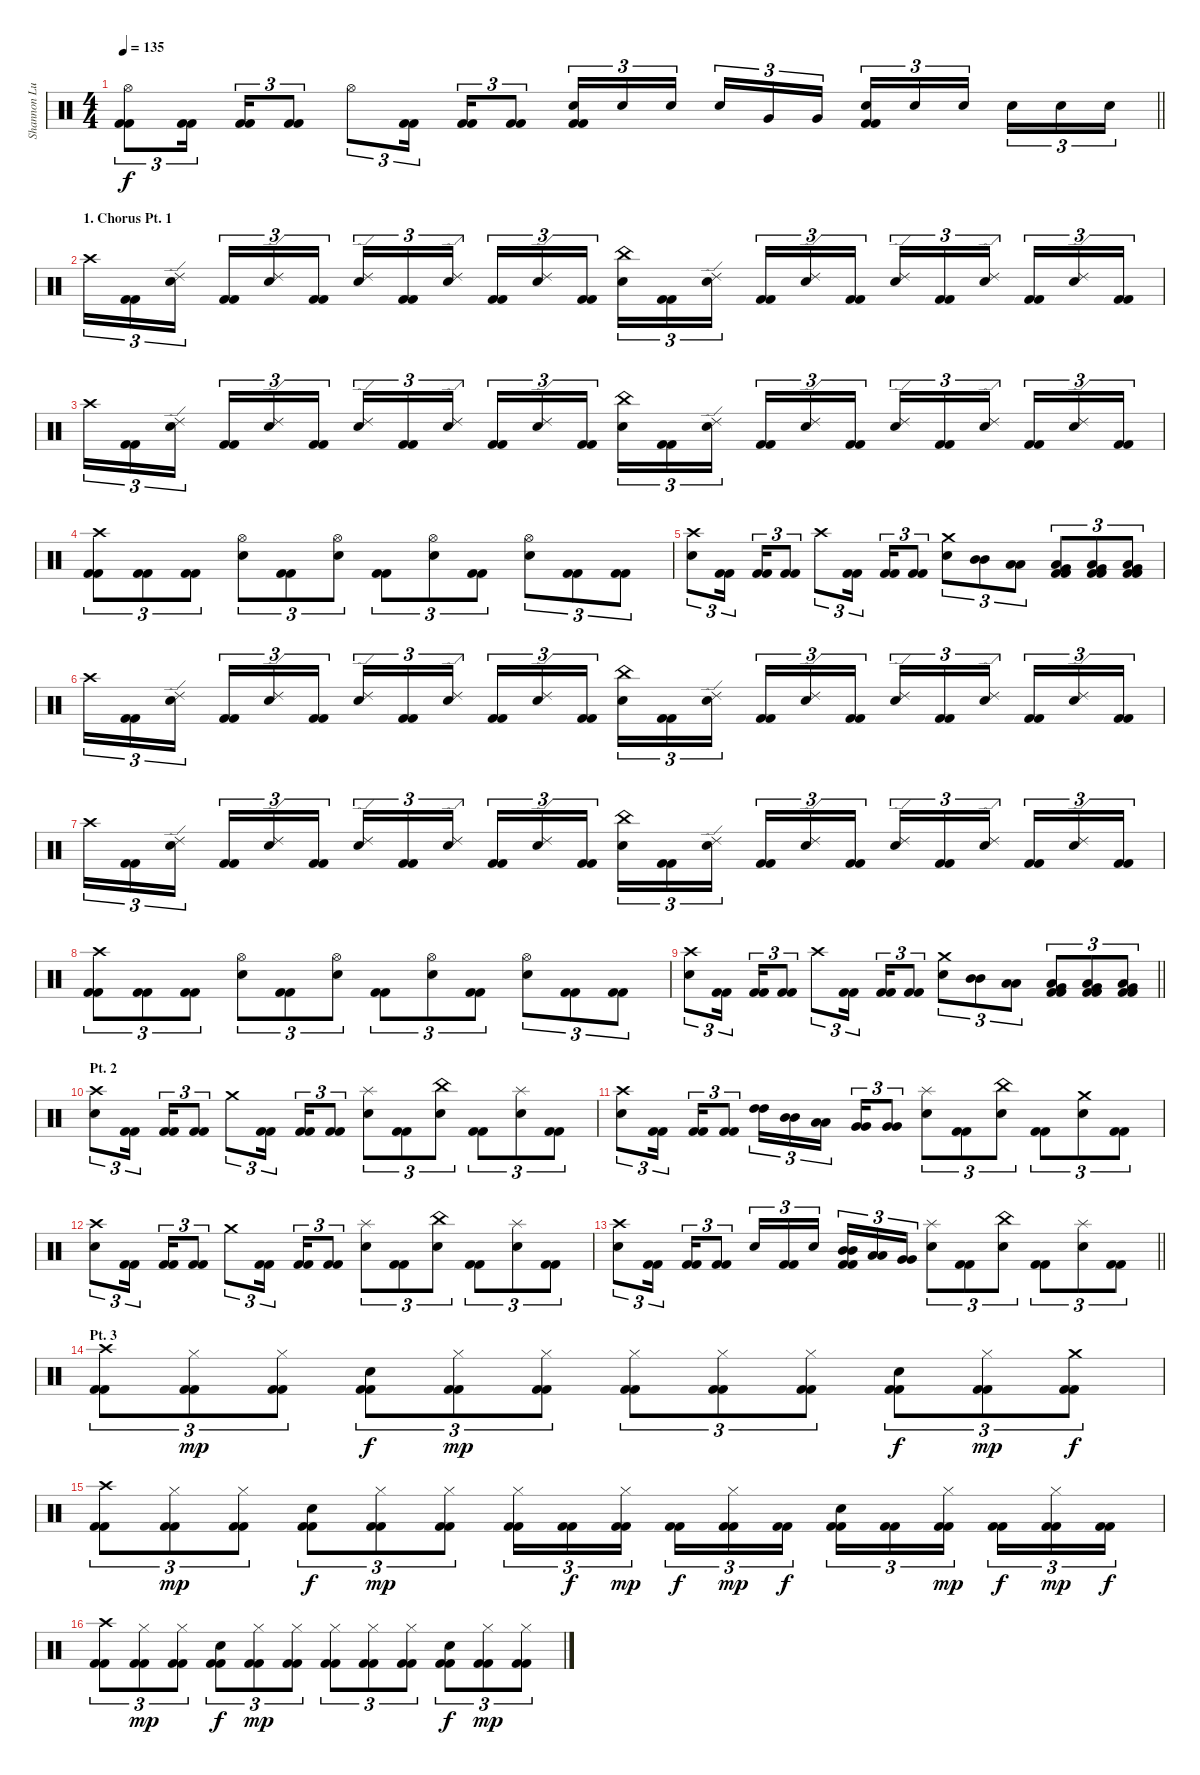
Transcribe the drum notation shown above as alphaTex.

\track ("Shannon Lucas" "Shannon Lu") {instrument percussion}
\staff {score}
\articulation defaults
\ts (4 4)
\tempo 135
\clef neutral
\barLineRight lightlight
\ks c
("Hi-Hat (open)" "Kick (hit) 2" "Kick (hit) 2").8{tu (3 2) dy f} ("Kick (hit) 2" "Kick (hit) 2").16{tu (3 2) beam splitsecondary} ("Kick (hit) 2" "Kick (hit) 2").16{tu (3 2)} ("Kick (hit) 2" "Kick (hit) 2").8{tu (3 2)} "Hi-Hat (open)".8{tu (3 2)} ("Kick (hit) 2" "Kick (hit) 2").16{tu (3 2) beam splitsecondary} ("Kick (hit) 2" "Kick (hit) 2").16{tu (3 2)} ("Kick (hit) 2" "Kick (hit) 2").8{tu (3 2)} ("Electric Snare (hit)" "Kick (hit) 2" "Kick (hit) 2").16{tu (3 2)} "Electric Snare (hit)".16{tu (3 2)} "Electric Snare (hit)".16{tu (3 2) beam splitsecondary} "Electric Snare (hit)".16{tu (3 2)} "Very Low Tom (hit)".16{tu (3 2)} "Very Low Tom (hit)".16{tu (3 2)} ("Electric Snare (hit)" "Kick (hit) 2" "Kick (hit) 2").16{tu (3 2)} "Electric Snare (hit)".16{tu (3 2)} "Electric Snare (hit)".16{tu (3 2) beam splitsecondary} "Electric Snare (hit)".16{tu (3 2)} "Electric Snare (hit)".16{tu (3 2)} "Electric Snare (hit)".16{tu (3 2)} |
\section ("" "1. Chorus Pt. 1")
"Crash high (hit)".16{tu (3 2)} ("Kick (hit) 2" "Kick (hit) 2").16{tu (3 2)} ("Ride (edge) 2" "Electric Snare (hit)").16{tu (3 2) beam splitsecondary} ("Kick (hit) 2" "Kick (hit) 2").16{tu (3 2)} ("Ride (edge) 2" "Electric Snare (hit)").16{tu (3 2)} ("Kick (hit) 2" "Kick (hit) 2").16{tu (3 2)} ("Ride (edge) 2" "Electric Snare (hit)").16{tu (3 2)} ("Kick (hit) 2" "Kick (hit) 2").16{tu (3 2)} ("Ride (edge) 2" "Electric Snare (hit)").16{tu (3 2) beam splitsecondary} ("Kick (hit) 2" "Kick (hit) 2").16{tu (3 2)} ("Ride (edge) 2" "Electric Snare (hit)").16{tu (3 2)} ("Kick (hit) 2" "Kick (hit) 2").16{tu (3 2)} ("China (hit)" "Electric Snare (hit)").16{tu (3 2)} ("Kick (hit) 2" "Kick (hit) 2").16{tu (3 2)} ("Ride (edge) 2" "Electric Snare (hit)").16{tu (3 2) beam splitsecondary} ("Kick (hit) 2" "Kick (hit) 2").16{tu (3 2)} ("Ride (edge) 2" "Electric Snare (hit)").16{tu (3 2)} ("Kick (hit) 2" "Kick (hit) 2").16{tu (3 2)} ("Ride (edge) 2" "Electric Snare (hit)").16{tu (3 2)} ("Kick (hit) 2" "Kick (hit) 2").16{tu (3 2)} ("Ride (edge) 2" "Electric Snare (hit)").16{tu (3 2) beam splitsecondary} ("Kick (hit) 2" "Kick (hit) 2").16{tu (3 2)} ("Ride (edge) 2" "Electric Snare (hit)").16{tu (3 2)} ("Kick (hit) 2" "Kick (hit) 2").16{tu (3 2)} |
"Crash high (hit)".16{tu (3 2)} ("Kick (hit) 2" "Kick (hit) 2").16{tu (3 2)} ("Ride (edge) 2" "Electric Snare (hit)").16{tu (3 2) beam splitsecondary} ("Kick (hit) 2" "Kick (hit) 2").16{tu (3 2)} ("Ride (edge) 2" "Electric Snare (hit)").16{tu (3 2)} ("Kick (hit) 2" "Kick (hit) 2").16{tu (3 2)} ("Ride (edge) 2" "Electric Snare (hit)").16{tu (3 2)} ("Kick (hit) 2" "Kick (hit) 2").16{tu (3 2)} ("Ride (edge) 2" "Electric Snare (hit)").16{tu (3 2) beam splitsecondary} ("Kick (hit) 2" "Kick (hit) 2").16{tu (3 2)} ("Ride (edge) 2" "Electric Snare (hit)").16{tu (3 2)} ("Kick (hit) 2" "Kick (hit) 2").16{tu (3 2)} ("China (hit)" "Electric Snare (hit)").16{tu (3 2)} ("Kick (hit) 2" "Kick (hit) 2").16{tu (3 2)} ("Ride (edge) 2" "Electric Snare (hit)").16{tu (3 2) beam splitsecondary} ("Kick (hit) 2" "Kick (hit) 2").16{tu (3 2)} ("Ride (edge) 2" "Electric Snare (hit)").16{tu (3 2)} ("Kick (hit) 2" "Kick (hit) 2").16{tu (3 2)} ("Ride (edge) 2" "Electric Snare (hit)").16{tu (3 2)} ("Kick (hit) 2" "Kick (hit) 2").16{tu (3 2)} ("Ride (edge) 2" "Electric Snare (hit)").16{tu (3 2) beam splitsecondary} ("Kick (hit) 2" "Kick (hit) 2").16{tu (3 2)} ("Ride (edge) 2" "Electric Snare (hit)").16{tu (3 2)} ("Kick (hit) 2" "Kick (hit) 2").16{tu (3 2)} |
("Crash high (hit)" "Kick (hit) 2" "Kick (hit) 2").8{tu (3 2)} ("Kick (hit) 2" "Kick (hit) 2").8{tu (3 2)} ("Kick (hit) 2" "Kick (hit) 2").8{tu (3 2)} ("Hi-Hat (open)" "Electric Snare (hit)").8{tu (3 2)} ("Kick (hit) 2" "Kick (hit) 2").8{tu (3 2)} ("Hi-Hat (open)" "Electric Snare (hit)").8{tu (3 2)} ("Kick (hit) 2" "Kick (hit) 2").8{tu (3 2)} ("Hi-Hat (open)" "Electric Snare (hit)").8{tu (3 2)} ("Kick (hit) 2" "Kick (hit) 2").8{tu (3 2)} ("Hi-Hat (open)" "Electric Snare (hit)").8{tu (3 2)} ("Kick (hit) 2" "Kick (hit) 2").8{tu (3 2)} ("Kick (hit) 2" "Kick (hit) 2").8{tu (3 2)} |
("Crash high (hit)" "Electric Snare (hit)").8{tu (3 2)} ("Kick (hit) 2" "Kick (hit) 2").16{tu (3 2) beam splitsecondary} ("Kick (hit) 2" "Kick (hit) 2").16{tu (3 2)} ("Kick (hit) 2" "Kick (hit) 2").8{tu (3 2)} "Crash high (hit)".8{tu (3 2)} ("Kick (hit) 2" "Kick (hit) 2").16{tu (3 2) beam splitsecondary} ("Kick (hit) 2" "Kick (hit) 2").16{tu (3 2)} ("Kick (hit) 2" "Kick (hit) 2").8{tu (3 2)} ("Crash medium (hit)" "Electric Snare (hit)").8{tu (3 2)} ("Mid Tom (hit)" "Mid Tom (hit)").8{tu (3 2)} ("Low Tom (hit)" "Low Tom (hit)").8{tu (3 2)} ("Very Low Tom (hit)" "Low Tom (hit)" "Kick (hit) 2" "Kick (hit) 2").8{tu (3 2)} ("Very Low Tom (hit)" "Low Floor Tom (hit)" "Kick (hit) 2" "Kick (hit) 2").8{tu (3 2)} ("Very Low Tom (hit)" "Low Tom (hit)" "Kick (hit) 2" "Kick (hit) 2").8{tu (3 2)} |
"Crash high (hit)".16{tu (3 2)} ("Kick (hit) 2" "Kick (hit) 2").16{tu (3 2)} ("Ride (edge) 2" "Electric Snare (hit)").16{tu (3 2) beam splitsecondary} ("Kick (hit) 2" "Kick (hit) 2").16{tu (3 2)} ("Ride (edge) 2" "Electric Snare (hit)").16{tu (3 2)} ("Kick (hit) 2" "Kick (hit) 2").16{tu (3 2)} ("Ride (edge) 2" "Electric Snare (hit)").16{tu (3 2)} ("Kick (hit) 2" "Kick (hit) 2").16{tu (3 2)} ("Ride (edge) 2" "Electric Snare (hit)").16{tu (3 2) beam splitsecondary} ("Kick (hit) 2" "Kick (hit) 2").16{tu (3 2)} ("Ride (edge) 2" "Electric Snare (hit)").16{tu (3 2)} ("Kick (hit) 2" "Kick (hit) 2").16{tu (3 2)} ("China (hit)" "Electric Snare (hit)").16{tu (3 2)} ("Kick (hit) 2" "Kick (hit) 2").16{tu (3 2)} ("Ride (edge) 2" "Electric Snare (hit)").16{tu (3 2) beam splitsecondary} ("Kick (hit) 2" "Kick (hit) 2").16{tu (3 2)} ("Ride (edge) 2" "Electric Snare (hit)").16{tu (3 2)} ("Kick (hit) 2" "Kick (hit) 2").16{tu (3 2)} ("Ride (edge) 2" "Electric Snare (hit)").16{tu (3 2)} ("Kick (hit) 2" "Kick (hit) 2").16{tu (3 2)} ("Ride (edge) 2" "Electric Snare (hit)").16{tu (3 2) beam splitsecondary} ("Kick (hit) 2" "Kick (hit) 2").16{tu (3 2)} ("Ride (edge) 2" "Electric Snare (hit)").16{tu (3 2)} ("Kick (hit) 2" "Kick (hit) 2").16{tu (3 2)} |
"Crash high (hit)".16{tu (3 2)} ("Kick (hit) 2" "Kick (hit) 2").16{tu (3 2)} ("Ride (edge) 2" "Electric Snare (hit)").16{tu (3 2) beam splitsecondary} ("Kick (hit) 2" "Kick (hit) 2").16{tu (3 2)} ("Ride (edge) 2" "Electric Snare (hit)").16{tu (3 2)} ("Kick (hit) 2" "Kick (hit) 2").16{tu (3 2)} ("Ride (edge) 2" "Electric Snare (hit)").16{tu (3 2)} ("Kick (hit) 2" "Kick (hit) 2").16{tu (3 2)} ("Ride (edge) 2" "Electric Snare (hit)").16{tu (3 2) beam splitsecondary} ("Kick (hit) 2" "Kick (hit) 2").16{tu (3 2)} ("Ride (edge) 2" "Electric Snare (hit)").16{tu (3 2)} ("Kick (hit) 2" "Kick (hit) 2").16{tu (3 2)} ("China (hit)" "Electric Snare (hit)").16{tu (3 2)} ("Kick (hit) 2" "Kick (hit) 2").16{tu (3 2)} ("Ride (edge) 2" "Electric Snare (hit)").16{tu (3 2) beam splitsecondary} ("Kick (hit) 2" "Kick (hit) 2").16{tu (3 2)} ("Ride (edge) 2" "Electric Snare (hit)").16{tu (3 2)} ("Kick (hit) 2" "Kick (hit) 2").16{tu (3 2)} ("Ride (edge) 2" "Electric Snare (hit)").16{tu (3 2)} ("Kick (hit) 2" "Kick (hit) 2").16{tu (3 2)} ("Ride (edge) 2" "Electric Snare (hit)").16{tu (3 2) beam splitsecondary} ("Kick (hit) 2" "Kick (hit) 2").16{tu (3 2)} ("Ride (edge) 2" "Electric Snare (hit)").16{tu (3 2)} ("Kick (hit) 2" "Kick (hit) 2").16{tu (3 2)} |
("Crash high (hit)" "Kick (hit) 2" "Kick (hit) 2").8{tu (3 2)} ("Kick (hit) 2" "Kick (hit) 2").8{tu (3 2)} ("Kick (hit) 2" "Kick (hit) 2").8{tu (3 2)} ("Hi-Hat (open)" "Electric Snare (hit)").8{tu (3 2)} ("Kick (hit) 2" "Kick (hit) 2").8{tu (3 2)} ("Hi-Hat (open)" "Electric Snare (hit)").8{tu (3 2)} ("Kick (hit) 2" "Kick (hit) 2").8{tu (3 2)} ("Hi-Hat (open)" "Electric Snare (hit)").8{tu (3 2)} ("Kick (hit) 2" "Kick (hit) 2").8{tu (3 2)} ("Hi-Hat (open)" "Electric Snare (hit)").8{tu (3 2)} ("Kick (hit) 2" "Kick (hit) 2").8{tu (3 2)} ("Kick (hit) 2" "Kick (hit) 2").8{tu (3 2)} |
\barLineRight lightlight
("Crash high (hit)" "Electric Snare (hit)").8{tu (3 2)} ("Kick (hit) 2" "Kick (hit) 2").16{tu (3 2) beam splitsecondary} ("Kick (hit) 2" "Kick (hit) 2").16{tu (3 2)} ("Kick (hit) 2" "Kick (hit) 2").8{tu (3 2)} "Crash high (hit)".8{tu (3 2)} ("Kick (hit) 2" "Kick (hit) 2").16{tu (3 2) beam splitsecondary} ("Kick (hit) 2" "Kick (hit) 2").16{tu (3 2)} ("Kick (hit) 2" "Kick (hit) 2").8{tu (3 2)} ("Crash medium (hit)" "Electric Snare (hit)").8{tu (3 2)} ("Mid Tom (hit)" "Mid Tom (hit)").8{tu (3 2)} ("Low Tom (hit)" "Low Tom (hit)").8{tu (3 2)} ("Very Low Tom (hit)" "Low Tom (hit)" "Kick (hit) 2" "Kick (hit) 2").8{tu (3 2)} ("Very Low Tom (hit)" "Low Floor Tom (hit)" "Kick (hit) 2" "Kick (hit) 2").8{tu (3 2)} ("Very Low Tom (hit)" "Low Tom (hit)" "Kick (hit) 2" "Kick (hit) 2").8{tu (3 2)} |
\section ("" "Pt. 2")
("Crash high (hit)" "Electric Snare (hit)").8{tu (3 2)} ("Kick (hit) 2" "Kick (hit) 2").16{tu (3 2) beam splitsecondary} ("Kick (hit) 2" "Kick (hit) 2").16{tu (3 2)} ("Kick (hit) 2" "Kick (hit) 2").8{tu (3 2)} "Crash medium (hit)".8{tu (3 2)} ("Kick (hit) 2" "Kick (hit) 2").16{tu (3 2) beam splitsecondary} ("Kick (hit) 2" "Kick (hit) 2").16{tu (3 2)} ("Kick (hit) 2" "Kick (hit) 2").8{tu (3 2)} ("Splash (hit)" "Electric Snare (hit)").8{tu (3 2)} ("Kick (hit) 2" "Kick (hit) 2").8{tu (3 2)} ("China (hit)" "Electric Snare (hit)").8{tu (3 2)} ("Kick (hit) 2" "Kick (hit) 2").8{tu (3 2)} ("Splash (hit)" "Electric Snare (hit)").8{tu (3 2)} ("Kick (hit) 2" "Kick (hit) 2").8{tu (3 2)} |
("Crash high (hit)" "Electric Snare (hit)").8{tu (3 2)} ("Kick (hit) 2" "Kick (hit) 2").16{tu (3 2) beam splitsecondary} ("Kick (hit) 2" "Kick (hit) 2").16{tu (3 2)} ("Kick (hit) 2" "Kick (hit) 2").8{tu (3 2)} ("High Tom (hit)" "High Tom (hit)").16{tu (3 2)} ("Mid Tom (hit)" "Mid Tom (hit)").16{tu (3 2)} ("Low Tom (hit)" "Low Tom (hit)").16{tu (3 2) beam splitsecondary} ("Very Low Tom (hit)" "Very Low Tom (hit)").16{tu (3 2)} ("Very Low Tom (hit)" "Very Low Tom (hit)").8{tu (3 2)} ("Splash (hit)" "Electric Snare (hit)").8{tu (3 2)} ("Kick (hit) 2" "Kick (hit) 2").8{tu (3 2)} ("China (hit)" "Electric Snare (hit)").8{tu (3 2)} ("Kick (hit) 2" "Kick (hit) 2").8{tu (3 2)} ("Crash medium (hit)" "Electric Snare (hit)").8{tu (3 2)} ("Kick (hit) 2" "Kick (hit) 2").8{tu (3 2)} |
("Crash high (hit)" "Electric Snare (hit)").8{tu (3 2)} ("Kick (hit) 2" "Kick (hit) 2").16{tu (3 2) beam splitsecondary} ("Kick (hit) 2" "Kick (hit) 2").16{tu (3 2)} ("Kick (hit) 2" "Kick (hit) 2").8{tu (3 2)} "Crash medium (hit)".8{tu (3 2)} ("Kick (hit) 2" "Kick (hit) 2").16{tu (3 2) beam splitsecondary} ("Kick (hit) 2" "Kick (hit) 2").16{tu (3 2)} ("Kick (hit) 2" "Kick (hit) 2").8{tu (3 2)} ("Splash (hit)" "Electric Snare (hit)").8{tu (3 2)} ("Kick (hit) 2" "Kick (hit) 2").8{tu (3 2)} ("China (hit)" "Electric Snare (hit)").8{tu (3 2)} ("Kick (hit) 2" "Kick (hit) 2").8{tu (3 2)} ("Splash (hit)" "Electric Snare (hit)").8{tu (3 2)} ("Kick (hit) 2" "Kick (hit) 2").8{tu (3 2)} |
\barLineRight lightlight
("Crash high (hit)" "Electric Snare (hit)").8{tu (3 2)} ("Kick (hit) 2" "Kick (hit) 2").16{tu (3 2) beam splitsecondary} ("Kick (hit) 2" "Kick (hit) 2").16{tu (3 2)} ("Kick (hit) 2" "Kick (hit) 2").8{tu (3 2)} "Electric Snare (hit)".16{tu (3 2)} ("Kick (hit) 2" "Kick (hit) 2").16{tu (3 2)} "Electric Snare (hit)".16{tu (3 2) beam splitsecondary} ("Mid Tom (hit)" "Mid Tom (hit)" "Kick (hit) 2" "Kick (hit) 2").16{tu (3 2)} ("Low Tom (hit)" "Low Tom (hit)").16{tu (3 2)} ("Very Low Tom (hit)" "Very Low Tom (hit)").16{tu (3 2)} ("Splash (hit)" "Electric Snare (hit)").8{tu (3 2)} ("Kick (hit) 2" "Kick (hit) 2").8{tu (3 2)} ("China (hit)" "Electric Snare (hit)").8{tu (3 2)} ("Kick (hit) 2" "Kick (hit) 2").8{tu (3 2)} ("Splash (hit)" "Electric Snare (hit)").8{tu (3 2)} ("Kick (hit) 2" "Kick (hit) 2").8{tu (3 2)} |
\section ("" "Pt. 3")
("Crash high (hit)" "Kick (hit) 2" "Kick (hit) 2").8{tu (3 2)} ("Hi-Hat (closed)" "Kick (hit) 2" "Kick (hit) 2").8{tu (3 2) dy mp} ("Hi-Hat (closed)" "Kick (hit) 2" "Kick (hit) 2").8{tu (3 2)} ("Electric Snare (hit)" "Kick (hit) 2" "Kick (hit) 2").8{tu (3 2) dy f} ("Hi-Hat (closed)" "Kick (hit) 2" "Kick (hit) 2").8{tu (3 2) dy mp} ("Hi-Hat (closed)" "Kick (hit) 2" "Kick (hit) 2").8{tu (3 2)} ("Hi-Hat (closed)" "Kick (hit) 2" "Kick (hit) 2").8{tu (3 2)} ("Hi-Hat (closed)" "Kick (hit) 2" "Kick (hit) 2").8{tu (3 2)} ("Hi-Hat (closed)" "Kick (hit) 2" "Kick (hit) 2").8{tu (3 2)} ("Electric Snare (hit)" "Kick (hit) 2" "Kick (hit) 2").8{tu (3 2) dy f} ("Hi-Hat (closed)" "Kick (hit) 2" "Kick (hit) 2").8{tu (3 2) dy mp} ("Crash medium (hit)" "Kick (hit) 2" "Kick (hit) 2").8{tu (3 2) dy f} |
("Crash high (hit)" "Kick (hit) 2" "Kick (hit) 2").8{tu (3 2)} ("Hi-Hat (closed)" "Kick (hit) 2" "Kick (hit) 2").8{tu (3 2) dy mp} ("Hi-Hat (closed)" "Kick (hit) 2" "Kick (hit) 2").8{tu (3 2)} ("Electric Snare (hit)" "Kick (hit) 2" "Kick (hit) 2").8{tu (3 2) dy f} ("Hi-Hat (closed)" "Kick (hit) 2" "Kick (hit) 2").8{tu (3 2) dy mp} ("Hi-Hat (closed)" "Kick (hit) 2" "Kick (hit) 2").8{tu (3 2)} ("Hi-Hat (closed)" "Kick (hit) 2" "Kick (hit) 2").16{tu (3 2)} ("Kick (hit) 2" "Kick (hit) 2").16{tu (3 2) dy f} ("Hi-Hat (closed)" "Kick (hit) 2" "Kick (hit) 2").16{tu (3 2) dy mp beam splitsecondary} ("Kick (hit) 2" "Kick (hit) 2").16{tu (3 2) dy f} ("Hi-Hat (closed)" "Kick (hit) 2" "Kick (hit) 2").16{tu (3 2) dy mp} ("Kick (hit) 2" "Kick (hit) 2").16{tu (3 2) dy f} ("Electric Snare (hit)" "Kick (hit) 2" "Kick (hit) 2").16{tu (3 2)} ("Kick (hit) 2" "Kick (hit) 2").16{tu (3 2)} ("Hi-Hat (closed)" "Kick (hit) 2" "Kick (hit) 2").16{tu (3 2) dy mp beam splitsecondary} ("Kick (hit) 2" "Kick (hit) 2").16{tu (3 2) dy f} ("Hi-Hat (closed)" "Kick (hit) 2" "Kick (hit) 2").16{tu (3 2) dy mp} ("Kick (hit) 2" "Kick (hit) 2").16{tu (3 2) dy f} |
("Crash high (hit)" "Kick (hit) 2" "Kick (hit) 2").8{tu (3 2)} ("Hi-Hat (closed)" "Kick (hit) 2" "Kick (hit) 2").8{tu (3 2) dy mp} ("Hi-Hat (closed)" "Kick (hit) 2" "Kick (hit) 2").8{tu (3 2)} ("Electric Snare (hit)" "Kick (hit) 2" "Kick (hit) 2").8{tu (3 2) dy f} ("Hi-Hat (closed)" "Kick (hit) 2" "Kick (hit) 2").8{tu (3 2) dy mp} ("Hi-Hat (closed)" "Kick (hit) 2" "Kick (hit) 2").8{tu (3 2)} ("Hi-Hat (closed)" "Kick (hit) 2" "Kick (hit) 2").8{tu (3 2)} ("Hi-Hat (closed)" "Kick (hit) 2" "Kick (hit) 2").8{tu (3 2)} ("Hi-Hat (closed)" "Kick (hit) 2" "Kick (hit) 2").8{tu (3 2)} ("Electric Snare (hit)" "Kick (hit) 2" "Kick (hit) 2").8{tu (3 2) dy f} ("Hi-Hat (closed)" "Kick (hit) 2" "Kick (hit) 2").8{tu (3 2) dy mp} ("Hi-Hat (closed)" "Kick (hit) 2" "Kick (hit) 2").8{tu (3 2)}
